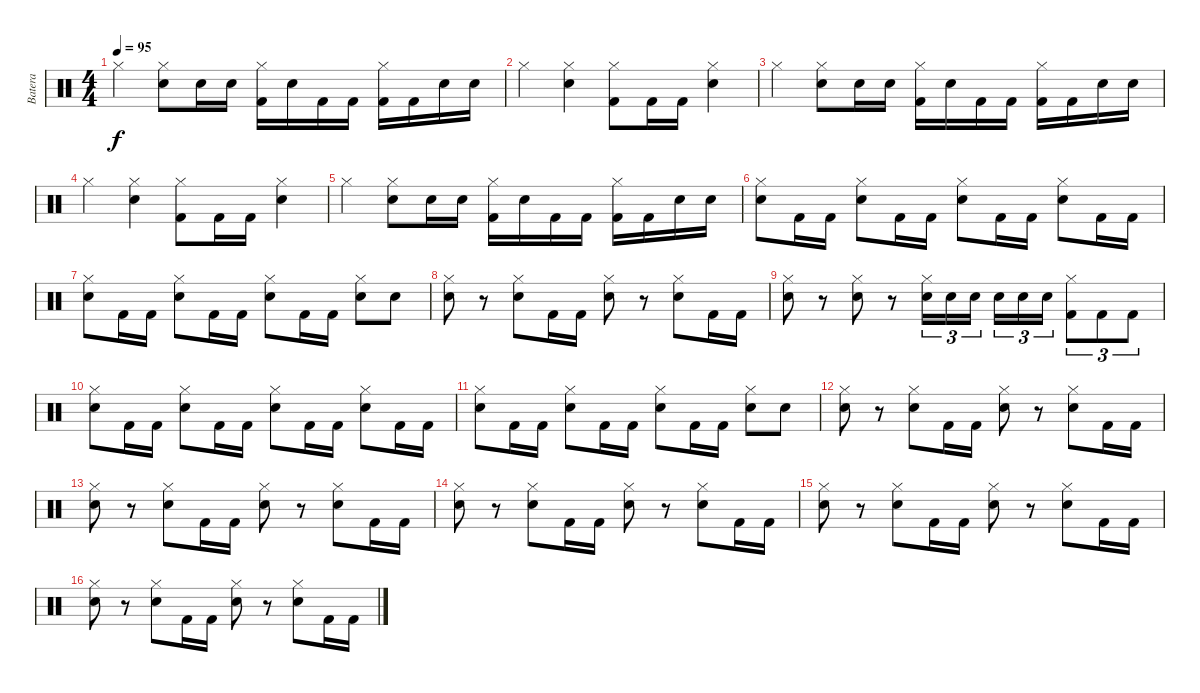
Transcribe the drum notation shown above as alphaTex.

\track ("Batera" "Batera") {instrument percussion}
\staff {score}
\articulation defaults
\ts (4 4)
\tempo 95
\clef neutral
\ks c "Hi-Hat (closed)".4{dy f}
("Hi-Hat (closed)" "Snare (hit) 2").8 "Snare (hit) 2".16 "Snare (hit) 2".16 ("Hi-Hat (closed)" "Kick (hit) 2").16 "Snare (hit) 2".16 "Kick (hit) 2".16 "Kick (hit) 2".16 ("Hi-Hat (closed)" "Kick (hit) 2").16 "Kick (hit) 2".16 "Snare (hit) 2".16 "Snare (hit) 2".16 |
"Hi-Hat (closed)".4 ("Hi-Hat (closed)" "Snare (hit) 2").4 ("Hi-Hat (closed)" "Kick (hit) 2").8 "Kick (hit) 2".16 "Kick (hit) 2".16 ("Hi-Hat (closed)" "Snare (hit) 2").4 |
"Hi-Hat (closed)".4 ("Hi-Hat (closed)" "Snare (hit) 2").8 "Snare (hit) 2".16 "Snare (hit) 2".16 ("Hi-Hat (closed)" "Kick (hit) 2").16 "Snare (hit) 2".16 "Kick (hit) 2".16 "Kick (hit) 2".16 ("Hi-Hat (closed)" "Kick (hit) 2").16 "Kick (hit) 2".16 "Snare (hit) 2".16 "Snare (hit) 2".16 |
"Hi-Hat (closed)".4 ("Hi-Hat (closed)" "Snare (hit) 2").4 ("Hi-Hat (closed)" "Kick (hit) 2").8 "Kick (hit) 2".16 "Kick (hit) 2".16 ("Hi-Hat (closed)" "Snare (hit) 2").4 |
"Hi-Hat (closed)".4 ("Hi-Hat (closed)" "Snare (hit) 2").8 "Snare (hit) 2".16 "Snare (hit) 2".16 ("Hi-Hat (closed)" "Kick (hit) 2").16 "Snare (hit) 2".16 "Kick (hit) 2".16 "Kick (hit) 2".16 ("Hi-Hat (closed)" "Kick (hit) 2").16 "Kick (hit) 2".16 "Snare (hit) 2".16 "Snare (hit) 2".16 |
("Hi-Hat (closed)" "Snare (hit) 2").8 "Kick (hit) 2".16 "Kick (hit) 2".16 ("Hi-Hat (closed)" "Snare (hit) 2").8 "Kick (hit) 2".16 "Kick (hit) 2".16 ("Hi-Hat (closed)" "Snare (hit) 2").8 "Kick (hit) 2".16 "Kick (hit) 2".16 ("Hi-Hat (closed)" "Snare (hit) 2").8 "Kick (hit) 2".16 "Kick (hit) 2".16 |
("Hi-Hat (closed)" "Snare (hit) 2").8 "Kick (hit) 2".16 "Kick (hit) 2".16 ("Hi-Hat (closed)" "Snare (hit) 2").8 "Kick (hit) 2".16 "Kick (hit) 2".16 ("Hi-Hat (closed)" "Snare (hit) 2").8 "Kick (hit) 2".16 "Kick (hit) 2".16 ("Hi-Hat (closed)" "Snare (hit) 2").8 "Snare (hit) 2".8 |
("Hi-Hat (closed)" "Snare (hit) 2").8 r.8 ("Hi-Hat (closed)" "Snare (hit) 2").8 "Kick (hit) 2".16 "Kick (hit) 2".16 ("Hi-Hat (closed)" "Snare (hit) 2").8 r.8 ("Hi-Hat (closed)" "Snare (hit) 2").8 "Kick (hit) 2".16 "Kick (hit) 2".16 |
("Hi-Hat (closed)" "Snare (hit) 2").8 r.8 ("Hi-Hat (closed)" "Snare (hit) 2").8 r.8 ("Hi-Hat (closed)" "Snare (hit) 2").16{tu (3 2)} "Snare (hit) 2".16{tu (3 2)} "Snare (hit) 2".16{tu (3 2)} "Snare (hit) 2".16{tu (3 2)} "Snare (hit) 2".16{tu (3 2)} "Snare (hit) 2".16{tu (3 2)} ("Hi-Hat (closed)" "Kick (hit) 2").8{tu (3 2)} "Kick (hit) 2".8{tu (3 2)} "Kick (hit) 2".8{tu (3 2)} |
("Hi-Hat (closed)" "Snare (hit) 2").8 "Kick (hit) 2".16 "Kick (hit) 2".16 ("Hi-Hat (closed)" "Snare (hit) 2").8 "Kick (hit) 2".16 "Kick (hit) 2".16 ("Hi-Hat (closed)" "Snare (hit) 2").8 "Kick (hit) 2".16 "Kick (hit) 2".16 ("Hi-Hat (closed)" "Snare (hit) 2").8 "Kick (hit) 2".16 "Kick (hit) 2".16 |
("Hi-Hat (closed)" "Snare (hit) 2").8 "Kick (hit) 2".16 "Kick (hit) 2".16 ("Hi-Hat (closed)" "Snare (hit) 2").8 "Kick (hit) 2".16 "Kick (hit) 2".16 ("Hi-Hat (closed)" "Snare (hit) 2").8 "Kick (hit) 2".16 "Kick (hit) 2".16 ("Hi-Hat (closed)" "Snare (hit) 2").8 "Snare (hit) 2".8 |
("Hi-Hat (closed)" "Snare (hit) 2").8 r.8 ("Hi-Hat (closed)" "Snare (hit) 2").8 "Kick (hit) 2".16 "Kick (hit) 2".16 ("Hi-Hat (closed)" "Snare (hit) 2").8 r.8 ("Hi-Hat (closed)" "Snare (hit) 2").8 "Kick (hit) 2".16 "Kick (hit) 2".16 |
("Hi-Hat (closed)" "Snare (hit) 2").8 r.8 ("Hi-Hat (closed)" "Snare (hit) 2").8 "Kick (hit) 2".16 "Kick (hit) 2".16 ("Hi-Hat (closed)" "Snare (hit) 2").8 r.8 ("Hi-Hat (closed)" "Snare (hit) 2").8 "Kick (hit) 2".16 "Kick (hit) 2".16 |
("Hi-Hat (closed)" "Snare (hit) 2").8 r.8 ("Hi-Hat (closed)" "Snare (hit) 2").8 "Kick (hit) 2".16 "Kick (hit) 2".16 ("Hi-Hat (closed)" "Snare (hit) 2").8 r.8 ("Hi-Hat (closed)" "Snare (hit) 2").8 "Kick (hit) 2".16 "Kick (hit) 2".16 |
("Hi-Hat (closed)" "Snare (hit) 2").8 r.8 ("Hi-Hat (closed)" "Snare (hit) 2").8 "Kick (hit) 2".16 "Kick (hit) 2".16 ("Hi-Hat (closed)" "Snare (hit) 2").8 r.8 ("Hi-Hat (closed)" "Snare (hit) 2").8 "Kick (hit) 2".16 "Kick (hit) 2".16 |
("Hi-Hat (closed)" "Snare (hit) 2").8 r.8 ("Hi-Hat (closed)" "Snare (hit) 2").8 "Kick (hit) 2".16 "Kick (hit) 2".16 ("Hi-Hat (closed)" "Snare (hit) 2").8 r.8 ("Hi-Hat (closed)" "Snare (hit) 2").8 "Kick (hit) 2".16 "Kick (hit) 2".16
